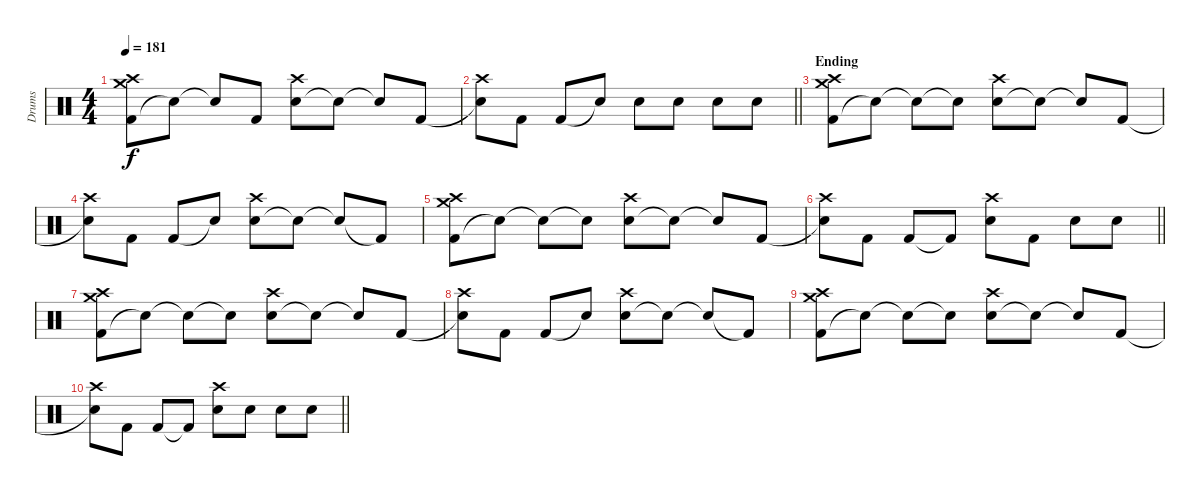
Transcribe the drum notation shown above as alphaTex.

\track ("Drums" "Drums") {instrument percussion}
\staff {score}
\articulation defaults
\ts (4 4)
\tempo 181
\clef neutral
\ks c
("Kick (hit) 2" "Crash high (hit)" "Crash medium (hit)").8{dy f} "Snare (hit)"{t}.8 "Snare (hit)"{t}.8 "Kick (hit) 2".8 ("Electric Snare (hit)" "Crash high (hit)").8 "Snare (hit)"{t}.8 "Snare (hit)"{t}.8 "Kick (hit) 2".8 |
\barLineRight lightlight
("Snare (hit)"{t} "Crash high (hit)").8 "Kick (hit) 2".8 "Kick (hit) 2".8 "Snare (hit)"{t}.8 "Electric Snare (hit)".8 "Electric Snare (hit)".8 "Electric Snare (hit)".8 "Electric Snare (hit)".8 |
\section ("" "Ending")
("Kick (hit) 2" "Crash high (hit)" "Crash medium (hit)").8 "Snare (hit)"{t}.8 "Snare (hit)"{t}.8 "Snare (hit)"{t}.8 ("Electric Snare (hit)" "Crash high (hit)").8 "Snare (hit)"{t}.8 "Snare (hit)"{t}.8 "Kick (hit) 2".8 |
("Snare (hit)"{t} "Crash high (hit)").8 "Kick (hit) 2".8 "Kick (hit) 2".8 "Snare (hit)"{t}.8 ("Electric Snare (hit)" "Crash high (hit)").8 "Snare (hit)"{t}.8 "Snare (hit)"{t}.8 "Kick (hit) 2"{t}.8 |
("Kick (hit) 2" "Crash high (hit)" "Crash medium (hit)").8 "Snare (hit)"{t}.8 "Snare (hit)"{t}.8 "Snare (hit)"{t}.8 ("Electric Snare (hit)" "Crash high (hit)").8 "Snare (hit)"{t}.8 "Snare (hit)"{t}.8 "Kick (hit) 2".8 |
\barLineRight lightlight
("Snare (hit)"{t} "Crash high (hit)").8 "Kick (hit) 2".8 "Kick (hit) 2".8 "Kick (hit) 2"{t}.8 ("Electric Snare (hit)" "Crash high (hit)").8 "Kick (hit) 2".8 "Electric Snare (hit)".8 "Electric Snare (hit)".8 |
("Kick (hit) 2" "Crash high (hit)" "Crash medium (hit)").8 "Snare (hit)"{t}.8 "Snare (hit)"{t}.8 "Snare (hit)"{t}.8 ("Electric Snare (hit)" "Crash high (hit)").8 "Snare (hit)"{t}.8 "Snare (hit)"{t}.8 "Kick (hit) 2".8 |
("Snare (hit)"{t} "Crash high (hit)").8 "Kick (hit) 2".8 "Kick (hit) 2".8 "Snare (hit)"{t}.8 ("Electric Snare (hit)" "Crash high (hit)").8 "Snare (hit)"{t}.8 "Snare (hit)"{t}.8 "Kick (hit) 2"{t}.8 |
("Kick (hit) 2" "Crash high (hit)" "Crash medium (hit)").8 "Snare (hit)"{t}.8 "Snare (hit)"{t}.8 "Snare (hit)"{t}.8 ("Electric Snare (hit)" "Crash high (hit)").8 "Snare (hit)"{t}.8 "Snare (hit)"{t}.8 "Kick (hit) 2".8 |
\barLineRight lightlight
("Snare (hit)"{t} "Crash high (hit)").8 "Kick (hit) 2".8 "Kick (hit) 2".8 "Kick (hit) 2"{t}.8 ("Electric Snare (hit)" "Crash high (hit)").8 "Electric Snare (hit)".8 "Electric Snare (hit)".8 "Electric Snare (hit)".8
